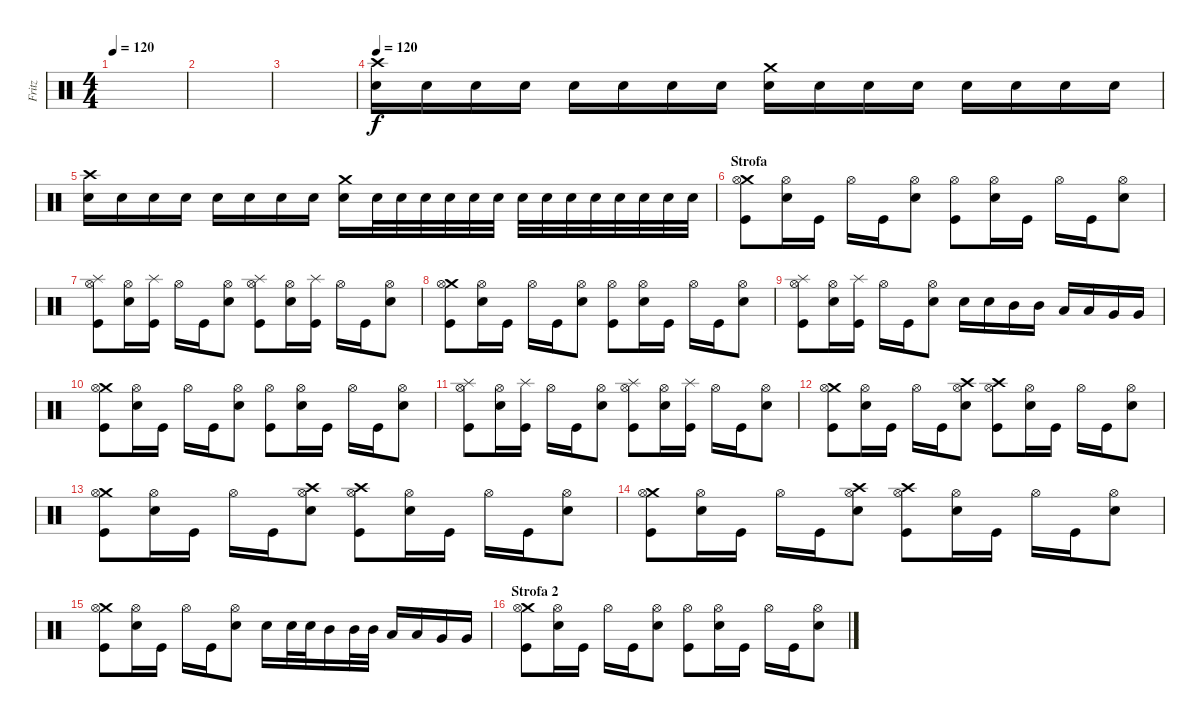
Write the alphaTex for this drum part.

\track ("Fritz" "Fritz") {instrument percussion}
\staff {score}
\articulation defaults
\ts (4 4)
\tempo 120
\clef neutral
\ks c
|
|
|
\tempo 120
("Crash high (hit)" "Snare (hit) 2").16 "Snare (hit) 2".16 "Snare (hit) 2".16 "Snare (hit) 2".16 "Snare (hit) 2".16 "Snare (hit) 2".16 "Snare (hit) 2".16 "Snare (hit) 2".16 ("Crash medium (hit)" "Snare (hit) 2").16 "Snare (hit) 2".16 "Snare (hit) 2".16 "Snare (hit) 2".16 "Snare (hit) 2".16 "Snare (hit) 2".16 "Snare (hit) 2".16 "Snare (hit) 2".16 |
("Crash high (hit)" "Snare (hit) 2").16 "Snare (hit) 2".16 "Snare (hit) 2".16 "Snare (hit) 2".16 "Snare (hit) 2".16 "Snare (hit) 2".16 "Snare (hit) 2".16 "Snare (hit) 2".16 ("Crash medium (hit)" "Snare (hit) 2").16 "Snare (hit) 2".32 "Snare (hit) 2".32 "Snare (hit) 2".32 "Snare (hit) 2".32 "Snare (hit) 2".32 "Snare (hit) 2".32 "Snare (hit) 2".32 "Snare (hit) 2".32 "Snare (hit) 2".32 "Snare (hit) 2".32 "Snare (hit) 2".32 "Snare (hit) 2".32 "Snare (hit) 2".32 "Snare (hit) 2".32 |
\section ("" "Strofa")
("Crash medium (hit)" "Hi-Hat (open)" "Kick (hit)").8 ("Hi-Hat (open)" "Snare (hit) 2").16 "Kick (hit)".16 "Hi-Hat (open)".16 "Kick (hit)".16 ("Hi-Hat (open)" "Snare (hit) 2").8 ("Hi-Hat (open)" "Kick (hit)").8 ("Hi-Hat (open)" "Snare (hit) 2").16 "Kick (hit)".16 "Hi-Hat (open)".16 "Kick (hit)".16 ("Hi-Hat (open)" "Snare (hit) 2").8 |
("Splash (hit)" "Hi-Hat (open)" "Kick (hit)").8 ("Hi-Hat (open)" "Snare (hit) 2").16 ("Splash (hit)" "Kick (hit)").16 "Hi-Hat (open)".16 "Kick (hit)".16 ("Hi-Hat (open)" "Snare (hit) 2").8 ("Splash (hit)" "Hi-Hat (open)" "Kick (hit)").8 ("Hi-Hat (open)" "Snare (hit) 2").16 ("Splash (hit)" "Kick (hit)").16 "Hi-Hat (open)".16 "Kick (hit)".16 ("Hi-Hat (open)" "Snare (hit) 2").8 |
("Crash medium (hit)" "Hi-Hat (open)" "Kick (hit)").8 ("Hi-Hat (open)" "Snare (hit) 2").16 "Kick (hit)".16 "Hi-Hat (open)".16 "Kick (hit)".16 ("Hi-Hat (open)" "Snare (hit) 2").8 ("Hi-Hat (open)" "Kick (hit)").8 ("Hi-Hat (open)" "Snare (hit) 2").16 "Kick (hit)".16 "Hi-Hat (open)".16 "Kick (hit)".16 ("Hi-Hat (open)" "Snare (hit) 2").8 |
("Splash (hit)" "Hi-Hat (open)" "Kick (hit)").8 ("Hi-Hat (open)" "Snare (hit) 2").16 ("Splash (hit)" "Kick (hit)").16 "Hi-Hat (open)".16 "Kick (hit)".16 ("Hi-Hat (open)" "Snare (hit) 2").8 "Snare (hit) 2".16 "Snare (hit) 2".16 "Mid Tom (hit)".16 "Mid Tom (hit)".16 "Low Tom (hit)".16 "Low Tom (hit)".16 "Very Low Tom (hit)".16 "Very Low Tom (hit)".16 |
("Crash medium (hit)" "Hi-Hat (open)" "Kick (hit)").8 ("Hi-Hat (open)" "Snare (hit) 2").16 "Kick (hit)".16 "Hi-Hat (open)".16 "Kick (hit)".16 ("Hi-Hat (open)" "Snare (hit) 2").8 ("Hi-Hat (open)" "Kick (hit)").8 ("Hi-Hat (open)" "Snare (hit) 2").16 "Kick (hit)".16 "Hi-Hat (open)".16 "Kick (hit)".16 ("Hi-Hat (open)" "Snare (hit) 2").8 |
("Splash (hit)" "Hi-Hat (open)" "Kick (hit)").8 ("Hi-Hat (open)" "Snare (hit) 2").16 ("Splash (hit)" "Kick (hit)").16 "Hi-Hat (open)".16 "Kick (hit)".16 ("Hi-Hat (open)" "Snare (hit) 2").8 ("Splash (hit)" "Hi-Hat (open)" "Kick (hit)").8 ("Hi-Hat (open)" "Snare (hit) 2").16 ("Splash (hit)" "Kick (hit)").16 "Hi-Hat (open)".16 "Kick (hit)".16 ("Hi-Hat (open)" "Snare (hit) 2").8 |
("Crash medium (hit)" "Hi-Hat (open)" "Kick (hit)").8 ("Hi-Hat (open)" "Snare (hit) 2").16 "Kick (hit)".16 "Hi-Hat (open)".16 "Kick (hit)".16 ("Crash high (hit)" "Hi-Hat (open)" "Snare (hit) 2").8 ("Crash high (hit)" "Hi-Hat (open)" "Kick (hit)").8 ("Hi-Hat (open)" "Snare (hit) 2").16 "Kick (hit)".16 "Hi-Hat (open)".16 "Kick (hit)".16 ("Hi-Hat (open)" "Snare (hit) 2").8 |
("Crash medium (hit)" "Hi-Hat (open)" "Kick (hit)").8 ("Hi-Hat (open)" "Snare (hit) 2").16 "Kick (hit)".16 "Hi-Hat (open)".16 "Kick (hit)".16 ("Crash high (hit)" "Hi-Hat (open)" "Snare (hit) 2").8 ("Crash high (hit)" "Hi-Hat (open)" "Kick (hit)").8 ("Hi-Hat (open)" "Snare (hit) 2").16 "Kick (hit)".16 "Hi-Hat (open)".16 "Kick (hit)".16 ("Hi-Hat (open)" "Snare (hit) 2").8 |
("Crash medium (hit)" "Hi-Hat (open)" "Kick (hit)").8 ("Hi-Hat (open)" "Snare (hit) 2").16 "Kick (hit)".16 "Hi-Hat (open)".16 "Kick (hit)".16 ("Crash high (hit)" "Hi-Hat (open)" "Snare (hit) 2").8 ("Crash high (hit)" "Hi-Hat (open)" "Kick (hit)").8 ("Hi-Hat (open)" "Snare (hit) 2").16 "Kick (hit)".16 "Hi-Hat (open)".16 "Kick (hit)".16 ("Hi-Hat (open)" "Snare (hit) 2").8 |
("Crash medium (hit)" "Hi-Hat (open)" "Kick (hit)").8 ("Hi-Hat (open)" "Snare (hit) 2").16 "Kick (hit)".16 "Hi-Hat (open)".16 "Kick (hit)".16 ("Hi-Hat (open)" "Snare (hit) 2").8 "Snare (hit) 2".16 "Snare (hit) 2".32 "Snare (hit) 2".32 "Mid Tom (hit)".16 "Mid Tom (hit)".32 "Mid Tom (hit)".32 "Low Tom (hit)".16 "Low Tom (hit)".16 "Very Low Tom (hit)".16 "Very Low Tom (hit)".16 |
\section ("" "Strofa 2")
("Crash medium (hit)" "Hi-Hat (open)" "Kick (hit)").8 ("Hi-Hat (open)" "Snare (hit) 2").16 "Kick (hit)".16 "Hi-Hat (open)".16 "Kick (hit)".16 ("Hi-Hat (open)" "Snare (hit) 2").8 ("Hi-Hat (open)" "Kick (hit)").8 ("Hi-Hat (open)" "Snare (hit) 2").16 "Kick (hit)".16 "Hi-Hat (open)".16 "Kick (hit)".16 ("Hi-Hat (open)" "Snare (hit) 2").8
